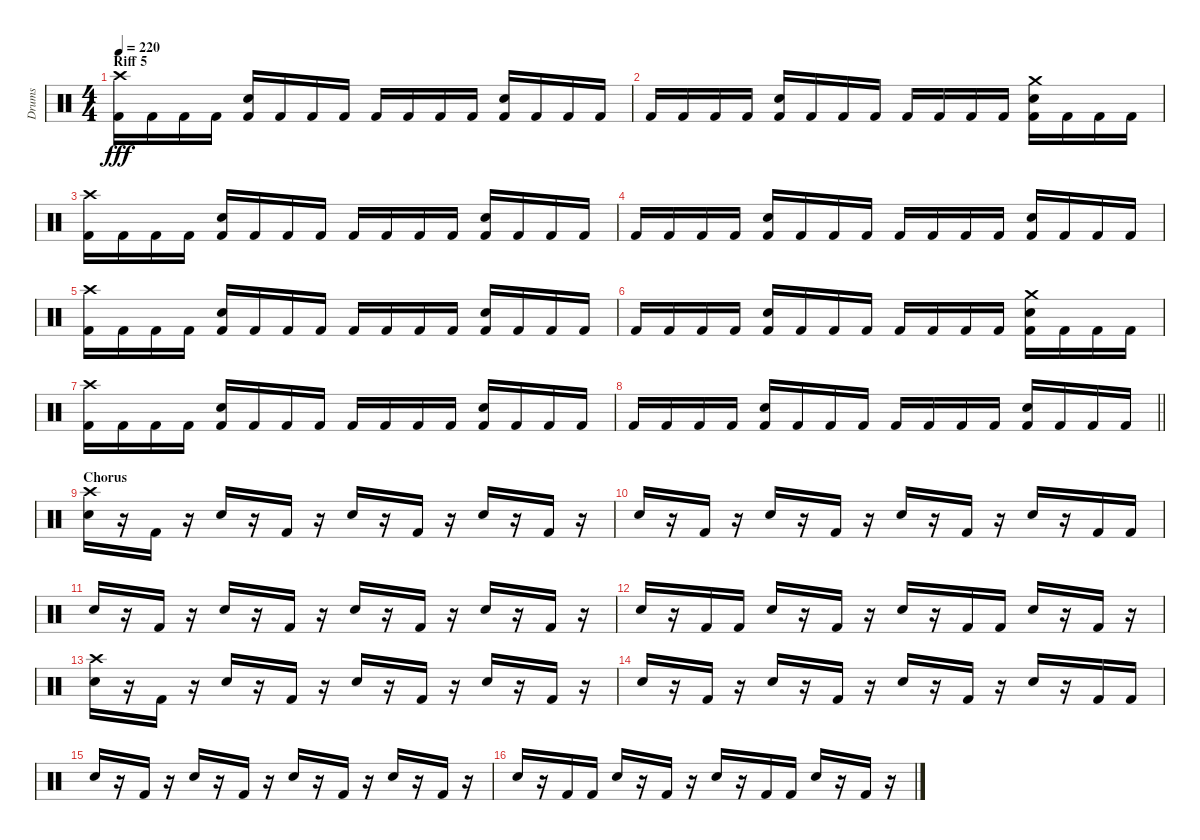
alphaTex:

\track ("Drums" "Drums") {instrument percussion}
\staff {score}
\articulation defaults
\ts (4 4)
\section ("" "Riff 5")
\tempo 220
\clef neutral
\ks c
("Crash high (hit)" "Kick (hit) 2").16{dy fff} "Kick (hit) 2".16 "Kick (hit) 2".16 "Kick (hit) 2".16 ("Kick (hit) 2" "Snare (hit) 2").16 "Kick (hit) 2".16 "Kick (hit) 2".16 "Kick (hit) 2".16 "Kick (hit) 2".16 "Kick (hit) 2".16 "Kick (hit) 2".16 "Kick (hit) 2".16 ("Kick (hit) 2" "Snare (hit) 2").16 "Kick (hit) 2".16 "Kick (hit) 2".16 "Kick (hit) 2".16 |
"Kick (hit) 2".16 "Kick (hit) 2".16 "Kick (hit) 2".16 "Kick (hit) 2".16 ("Kick (hit) 2" "Snare (hit) 2").16 "Kick (hit) 2".16 "Kick (hit) 2".16 "Kick (hit) 2".16 "Kick (hit) 2".16 "Kick (hit) 2".16 "Kick (hit) 2".16 "Kick (hit) 2".16 ("Crash medium (hit)" "Kick (hit) 2" "Snare (hit) 2").16 "Kick (hit) 2".16 "Kick (hit) 2".16 "Kick (hit) 2".16 |
("Crash high (hit)" "Kick (hit) 2").16 "Kick (hit) 2".16 "Kick (hit) 2".16 "Kick (hit) 2".16 ("Kick (hit) 2" "Snare (hit) 2").16 "Kick (hit) 2".16 "Kick (hit) 2".16 "Kick (hit) 2".16 "Kick (hit) 2".16 "Kick (hit) 2".16 "Kick (hit) 2".16 "Kick (hit) 2".16 ("Kick (hit) 2" "Snare (hit) 2").16 "Kick (hit) 2".16 "Kick (hit) 2".16 "Kick (hit) 2".16 |
"Kick (hit) 2".16 "Kick (hit) 2".16 "Kick (hit) 2".16 "Kick (hit) 2".16 ("Kick (hit) 2" "Snare (hit) 2").16 "Kick (hit) 2".16 "Kick (hit) 2".16 "Kick (hit) 2".16 "Kick (hit) 2".16 "Kick (hit) 2".16 "Kick (hit) 2".16 "Kick (hit) 2".16 ("Kick (hit) 2" "Snare (hit) 2").16 "Kick (hit) 2".16 "Kick (hit) 2".16 "Kick (hit) 2".16 |
("Crash high (hit)" "Kick (hit) 2").16 "Kick (hit) 2".16 "Kick (hit) 2".16 "Kick (hit) 2".16 ("Kick (hit) 2" "Snare (hit) 2").16 "Kick (hit) 2".16 "Kick (hit) 2".16 "Kick (hit) 2".16 "Kick (hit) 2".16 "Kick (hit) 2".16 "Kick (hit) 2".16 "Kick (hit) 2".16 ("Kick (hit) 2" "Snare (hit) 2").16 "Kick (hit) 2".16 "Kick (hit) 2".16 "Kick (hit) 2".16 |
"Kick (hit) 2".16 "Kick (hit) 2".16 "Kick (hit) 2".16 "Kick (hit) 2".16 ("Kick (hit) 2" "Snare (hit) 2").16 "Kick (hit) 2".16 "Kick (hit) 2".16 "Kick (hit) 2".16 "Kick (hit) 2".16 "Kick (hit) 2".16 "Kick (hit) 2".16 "Kick (hit) 2".16 ("Crash medium (hit)" "Kick (hit) 2" "Snare (hit) 2").16 "Kick (hit) 2".16 "Kick (hit) 2".16 "Kick (hit) 2".16 |
("Crash high (hit)" "Kick (hit) 2").16 "Kick (hit) 2".16 "Kick (hit) 2".16 "Kick (hit) 2".16 ("Kick (hit) 2" "Snare (hit) 2").16 "Kick (hit) 2".16 "Kick (hit) 2".16 "Kick (hit) 2".16 "Kick (hit) 2".16 "Kick (hit) 2".16 "Kick (hit) 2".16 "Kick (hit) 2".16 ("Kick (hit) 2" "Snare (hit) 2").16 "Kick (hit) 2".16 "Kick (hit) 2".16 "Kick (hit) 2".16 |
\barLineRight lightlight "Kick (hit) 2".16 "Kick (hit) 2".16 "Kick (hit) 2".16 "Kick (hit) 2".16
("Kick (hit) 2" "Snare (hit) 2").16 "Kick (hit) 2".16 "Kick (hit) 2".16 "Kick (hit) 2".16 "Kick (hit) 2".16 "Kick (hit) 2".16 "Kick (hit) 2".16 "Kick (hit) 2".16 ("Kick (hit) 2" "Snare (hit) 2").16 "Kick (hit) 2".16 "Kick (hit) 2".16 "Kick (hit) 2".16 |
\section ("" "Chorus")
("Crash high (hit)" "Snare (hit) 2").16 r.16 "Kick (hit) 2".16 r.16 "Snare (hit) 2".16 r.16 "Kick (hit) 2".16 r.16 "Snare (hit) 2".16 r.16 "Kick (hit) 2".16 r.16 "Snare (hit) 2".16 r.16 "Kick (hit) 2".16 r.16 |
"Snare (hit) 2".16 r.16 "Kick (hit) 2".16 r.16 "Snare (hit) 2".16 r.16 "Kick (hit) 2".16 r.16 "Snare (hit) 2".16 r.16 "Kick (hit) 2".16 r.16 "Snare (hit) 2".16 r.16 "Kick (hit) 2".16 "Kick (hit) 2".16 |
"Snare (hit) 2".16 r.16 "Kick (hit) 2".16 r.16 "Snare (hit) 2".16 r.16 "Kick (hit) 2".16 r.16 "Snare (hit) 2".16 r.16 "Kick (hit) 2".16 r.16 "Snare (hit) 2".16 r.16 "Kick (hit) 2".16 r.16 |
"Snare (hit) 2".16 r.16 "Kick (hit) 2".16 "Kick (hit) 2".16 "Snare (hit) 2".16 r.16 "Kick (hit) 2".16 r.16 "Snare (hit) 2".16 r.16 "Kick (hit) 2".16 "Kick (hit) 2".16 "Snare (hit) 2".16 r.16 "Kick (hit) 2".16 r.16 |
("Crash high (hit)" "Snare (hit) 2").16 r.16 "Kick (hit) 2".16 r.16 "Snare (hit) 2".16 r.16 "Kick (hit) 2".16 r.16 "Snare (hit) 2".16 r.16 "Kick (hit) 2".16 r.16 "Snare (hit) 2".16 r.16 "Kick (hit) 2".16 r.16 |
"Snare (hit) 2".16 r.16 "Kick (hit) 2".16 r.16 "Snare (hit) 2".16 r.16 "Kick (hit) 2".16 r.16 "Snare (hit) 2".16 r.16 "Kick (hit) 2".16 r.16 "Snare (hit) 2".16 r.16 "Kick (hit) 2".16 "Kick (hit) 2".16 |
"Snare (hit) 2".16 r.16 "Kick (hit) 2".16 r.16 "Snare (hit) 2".16 r.16 "Kick (hit) 2".16 r.16 "Snare (hit) 2".16 r.16 "Kick (hit) 2".16 r.16 "Snare (hit) 2".16 r.16 "Kick (hit) 2".16 r.16 |
"Snare (hit) 2".16 r.16 "Kick (hit) 2".16 "Kick (hit) 2".16 "Snare (hit) 2".16 r.16 "Kick (hit) 2".16 r.16 "Snare (hit) 2".16 r.16 "Kick (hit) 2".16 "Kick (hit) 2".16 "Snare (hit) 2".16 r.16 "Kick (hit) 2".16 r.16
